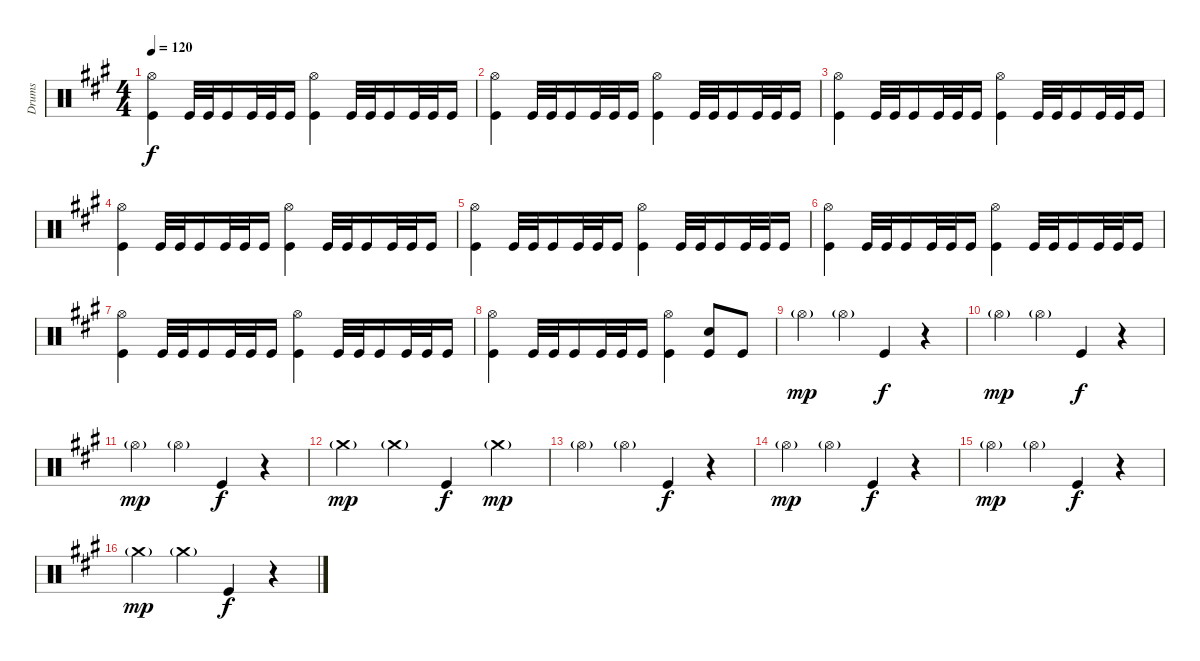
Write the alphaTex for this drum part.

\track ("Drums" "Drums") {instrument percussion}
\staff {score}
\articulation defaults
\ts (4 4)
\tempo 120
\clef neutral
\ks a
("Hi-Hat (open)" "Kick (hit)").4{dy f} "Kick (hit)".32 "Kick (hit)".32 "Kick (hit)".16 "Kick (hit)".32 "Kick (hit)".32 "Kick (hit)".16 ("Hi-Hat (open)" "Kick (hit)").4 "Kick (hit)".32 "Kick (hit)".32 "Kick (hit)".16 "Kick (hit)".32 "Kick (hit)".32 "Kick (hit)".16 |
("Hi-Hat (open)" "Kick (hit)").4 "Kick (hit)".32 "Kick (hit)".32 "Kick (hit)".16 "Kick (hit)".32 "Kick (hit)".32 "Kick (hit)".16 ("Hi-Hat (open)" "Kick (hit)").4 "Kick (hit)".32 "Kick (hit)".32 "Kick (hit)".16 "Kick (hit)".32 "Kick (hit)".32 "Kick (hit)".16 |
("Hi-Hat (open)" "Kick (hit)").4 "Kick (hit)".32 "Kick (hit)".32 "Kick (hit)".16 "Kick (hit)".32 "Kick (hit)".32 "Kick (hit)".16 ("Hi-Hat (open)" "Kick (hit)").4 "Kick (hit)".32 "Kick (hit)".32 "Kick (hit)".16 "Kick (hit)".32 "Kick (hit)".32 "Kick (hit)".16 |
("Hi-Hat (open)" "Kick (hit)").4 "Kick (hit)".32 "Kick (hit)".32 "Kick (hit)".16 "Kick (hit)".32 "Kick (hit)".32 "Kick (hit)".16 ("Hi-Hat (open)" "Kick (hit)").4 "Kick (hit)".32 "Kick (hit)".32 "Kick (hit)".16 "Kick (hit)".32 "Kick (hit)".32 "Kick (hit)".16 |
("Hi-Hat (open)" "Kick (hit)").4 "Kick (hit)".32 "Kick (hit)".32 "Kick (hit)".16 "Kick (hit)".32 "Kick (hit)".32 "Kick (hit)".16 ("Hi-Hat (open)" "Kick (hit)").4 "Kick (hit)".32 "Kick (hit)".32 "Kick (hit)".16 "Kick (hit)".32 "Kick (hit)".32 "Kick (hit)".16 |
("Hi-Hat (open)" "Kick (hit)").4 "Kick (hit)".32 "Kick (hit)".32 "Kick (hit)".16 "Kick (hit)".32 "Kick (hit)".32 "Kick (hit)".16 ("Hi-Hat (open)" "Kick (hit)").4 "Kick (hit)".32 "Kick (hit)".32 "Kick (hit)".16 "Kick (hit)".32 "Kick (hit)".32 "Kick (hit)".16 |
("Hi-Hat (open)" "Kick (hit)").4 "Kick (hit)".32 "Kick (hit)".32 "Kick (hit)".16 "Kick (hit)".32 "Kick (hit)".32 "Kick (hit)".16 ("Hi-Hat (open)" "Kick (hit)").4 "Kick (hit)".32 "Kick (hit)".32 "Kick (hit)".16 "Kick (hit)".32 "Kick (hit)".32 "Kick (hit)".16 |
("Hi-Hat (open)" "Kick (hit)").4 "Kick (hit)".32 "Kick (hit)".32 "Kick (hit)".16 "Kick (hit)".32 "Kick (hit)".32 "Kick (hit)".16 ("Hi-Hat (open)" "Kick (hit)").4 ("Snare (hit) 2" "Kick (hit)").8 "Kick (hit)".8 |
"Hi-Hat (open)"{g}.4{dy mp} "Hi-Hat (open)"{g}.4 "Kick (hit)".4{dy f} r.4 |
"Hi-Hat (open)"{g}.4{dy mp} "Hi-Hat (open)"{g}.4 "Kick (hit)".4{dy f} r.4 |
"Hi-Hat (open)"{g}.4{dy mp} "Hi-Hat (open)"{g}.4 "Kick (hit)".4{dy f} r.4 |
"Crash medium (hit)"{g}.4{dy mp} "Crash medium (hit)"{g}.4 "Kick (hit)".4{dy f} "Crash medium (hit)"{g}.4{dy mp} |
"Hi-Hat (open)"{g}.4 "Hi-Hat (open)"{g}.4 "Kick (hit)".4{dy f} r.4 |
"Hi-Hat (open)"{g}.4{dy mp} "Hi-Hat (open)"{g}.4 "Kick (hit)".4{dy f} r.4 |
"Hi-Hat (open)"{g}.4{dy mp} "Hi-Hat (open)"{g}.4 "Kick (hit)".4{dy f} r.4 |
"Crash medium (hit)"{g}.4{dy mp} "Crash medium (hit)"{g}.4 "Kick (hit)".4{dy f} r.4
